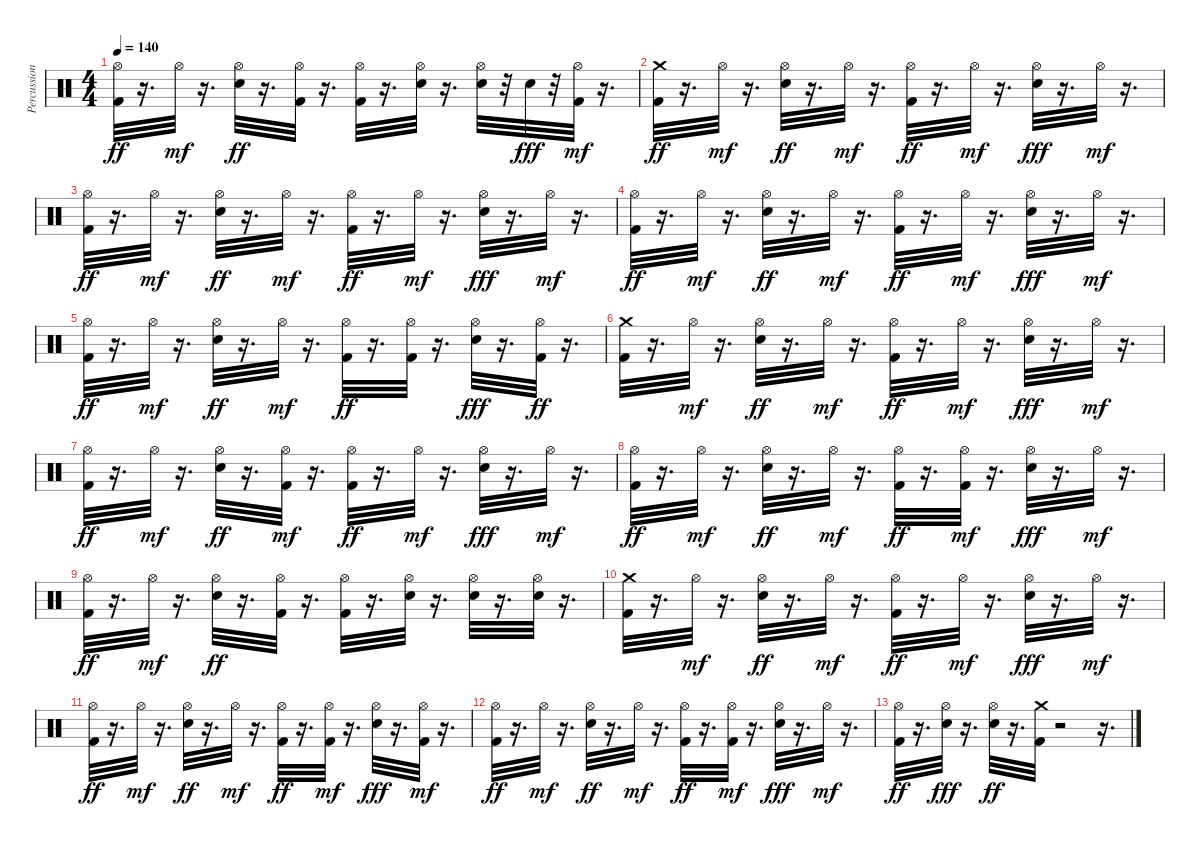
\track ("Percussion" "Percussion") {instrument percussion}
\staff {score}
\articulation defaults
\ts (4 4)
\tempo 140
\clef neutral
\ks c
("Kick (hit) 2" "Hi-Hat (open)").32{dy ff} r.16{d} "Hi-Hat (open)".32{dy mf} r.16{d} ("Electric Snare (hit)" "Hi-Hat (open)").32{dy ff} r.16{d} ("Kick (hit) 2" "Hi-Hat (open)").32 r.16{d} ("Kick (hit) 2" "Hi-Hat (open)").32 r.16{d} ("Electric Snare (hit)" "Hi-Hat (open)").32 r.16{d} ("Electric Snare (hit)" "Hi-Hat (open)").32 r.32 "Electric Snare (hit)".32{dy fff} r.32 ("Kick (hit) 2" "Hi-Hat (open)").32{dy mf} r.16{d} |
("Crash medium (hit)" "Kick (hit) 2").32{dy ff} r.16{d} "Hi-Hat (open)".32{dy mf} r.16{d} ("Electric Snare (hit)" "Hi-Hat (open)").32{dy ff} r.16{d} "Hi-Hat (open)".32{dy mf} r.16{d} ("Kick (hit) 2" "Hi-Hat (open)").32{dy ff} r.16{d} "Hi-Hat (open)".32{dy mf} r.16{d} ("Electric Snare (hit)" "Hi-Hat (open)").32{dy fff} r.16{d} "Hi-Hat (open)".32{dy mf} r.16{d} |
("Kick (hit) 2" "Hi-Hat (open)").32{dy ff} r.16{d} "Hi-Hat (open)".32{dy mf} r.16{d} ("Electric Snare (hit)" "Hi-Hat (open)").32{dy ff} r.16{d} "Hi-Hat (open)".32{dy mf} r.16{d} ("Kick (hit) 2" "Hi-Hat (open)").32{dy ff} r.16{d} "Hi-Hat (open)".32{dy mf} r.16{d} ("Electric Snare (hit)" "Hi-Hat (open)").32{dy fff} r.16{d} "Hi-Hat (open)".32{dy mf} r.16{d} |
("Kick (hit) 2" "Hi-Hat (open)").32{dy ff} r.16{d} "Hi-Hat (open)".32{dy mf} r.16{d} ("Electric Snare (hit)" "Hi-Hat (open)").32{dy ff} r.16{d} "Hi-Hat (open)".32{dy mf} r.16{d} ("Kick (hit) 2" "Hi-Hat (open)").32{dy ff} r.16{d} "Hi-Hat (open)".32{dy mf} r.16{d} ("Electric Snare (hit)" "Hi-Hat (open)").32{dy fff} r.16{d} "Hi-Hat (open)".32{dy mf} r.16{d} |
("Kick (hit) 2" "Hi-Hat (open)").32{dy ff} r.16{d} "Hi-Hat (open)".32{dy mf} r.16{d} ("Electric Snare (hit)" "Hi-Hat (open)").32{dy ff} r.16{d} "Hi-Hat (open)".32{dy mf} r.16{d} ("Kick (hit) 2" "Hi-Hat (open)").32{dy ff} r.16{d} ("Hi-Hat (open)" "Kick (hit) 2").32 r.16{d} ("Electric Snare (hit)" "Hi-Hat (open)").32{dy fff} r.16{d} ("Hi-Hat (open)" "Kick (hit) 2").32{dy ff} r.16{d} |
("Kick (hit) 2" "Crash medium (hit)").32 r.16{d} "Hi-Hat (open)".32{dy mf} r.16{d} ("Electric Snare (hit)" "Hi-Hat (open)").32{dy ff} r.16{d} "Hi-Hat (open)".32{dy mf} r.16{d} ("Kick (hit) 2" "Hi-Hat (open)").32{dy ff} r.16{d} "Hi-Hat (open)".32{dy mf} r.16{d} ("Electric Snare (hit)" "Hi-Hat (open)").32{dy fff} r.16{d} "Hi-Hat (open)".32{dy mf} r.16{d} |
("Kick (hit) 2" "Hi-Hat (open)").32{dy ff} r.16{d} "Hi-Hat (open)".32{dy mf} r.16{d} ("Electric Snare (hit)" "Hi-Hat (open)").32{dy ff} r.16{d} ("Kick (hit) 2" "Hi-Hat (open)").32{dy mf} r.16{d} ("Kick (hit) 2" "Hi-Hat (open)").32{dy ff} r.16{d} "Hi-Hat (open)".32{dy mf} r.16{d} ("Electric Snare (hit)" "Hi-Hat (open)").32{dy fff} r.16{d} "Hi-Hat (open)".32{dy mf} r.16{d} |
("Kick (hit) 2" "Hi-Hat (open)").32{dy ff} r.16{d} "Hi-Hat (open)".32{dy mf} r.16{d} ("Electric Snare (hit)" "Hi-Hat (open)").32{dy ff} r.16{d} "Hi-Hat (open)".32{dy mf} r.16{d} ("Kick (hit) 2" "Hi-Hat (open)").32{dy ff} r.16{d} ("Kick (hit) 2" "Hi-Hat (open)").32{dy mf} r.16{d} ("Electric Snare (hit)" "Hi-Hat (open)").32{dy fff} r.16{d} "Hi-Hat (open)".32{dy mf} r.16{d} |
("Kick (hit) 2" "Hi-Hat (open)").32{dy ff} r.16{d} "Hi-Hat (open)".32{dy mf} r.16{d} ("Electric Snare (hit)" "Hi-Hat (open)").32{dy ff} r.16{d} ("Kick (hit) 2" "Hi-Hat (open)").32 r.16{d} ("Kick (hit) 2" "Hi-Hat (open)").32 r.16{d} ("Electric Snare (hit)" "Hi-Hat (open)").32 r.16{d} ("Electric Snare (hit)" "Hi-Hat (open)").32 r.16{d} ("Electric Snare (hit)" "Hi-Hat (open)").32 r.16{d} |
("Kick (hit) 2" "Crash medium (hit)").32 r.16{d} "Hi-Hat (open)".32{dy mf} r.16{d} ("Electric Snare (hit)" "Hi-Hat (open)").32{dy ff} r.16{d} "Hi-Hat (open)".32{dy mf} r.16{d} ("Kick (hit) 2" "Hi-Hat (open)").32{dy ff} r.16{d} "Hi-Hat (open)".32{dy mf} r.16{d} ("Electric Snare (hit)" "Hi-Hat (open)").32{dy fff} r.16{d} "Hi-Hat (open)".32{dy mf} r.16{d} |
("Kick (hit) 2" "Hi-Hat (open)").32{dy ff} r.16{d} "Hi-Hat (open)".32{dy mf} r.16{d} ("Electric Snare (hit)" "Hi-Hat (open)").32{dy ff} r.16{d} "Hi-Hat (open)".32{dy mf} r.16{d} ("Kick (hit) 2" "Hi-Hat (open)").32{dy ff} r.16{d} ("Kick (hit) 2" "Hi-Hat (open)").32{dy mf} r.16{d} ("Electric Snare (hit)" "Hi-Hat (open)").32{dy fff} r.16{d} ("Kick (hit) 2" "Hi-Hat (open)").32{dy mf} r.16{d} |
("Kick (hit) 2" "Hi-Hat (open)").32{dy ff} r.16{d} "Hi-Hat (open)".32{dy mf} r.16{d} ("Electric Snare (hit)" "Hi-Hat (open)").32{dy ff} r.16{d} "Hi-Hat (open)".32{dy mf} r.16{d} ("Kick (hit) 2" "Hi-Hat (open)").32{dy ff} r.16{d} ("Kick (hit) 2" "Hi-Hat (open)").32{dy mf} r.16{d} ("Electric Snare (hit)" "Hi-Hat (open)").32{dy fff} r.16{d} "Hi-Hat (open)".32{dy mf} r.16{d} |
("Kick (hit) 2" "Hi-Hat (open)").32{dy ff} r.16{d} ("Hi-Hat (open)" "Electric Snare (hit)").32{dy fff} r.16{d} ("Electric Snare (hit)" "Hi-Hat (open)").32{dy ff} r.16{d} ("Kick (hit) 2" "Crash medium (hit)").32 r.2 r.16{d}
